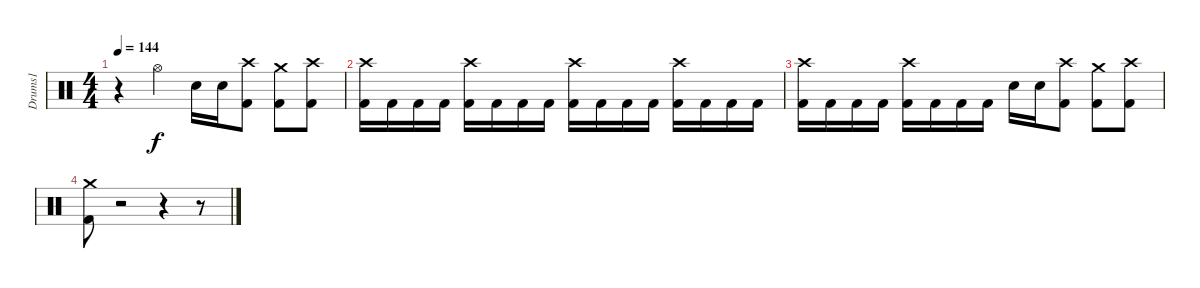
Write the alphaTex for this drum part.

\track ("Drums1" "Drums1") {instrument percussion}
\staff {score}
\articulation defaults
\ts (4 4)
\tempo 144
\clef neutral
\ks c
r.4{dy f} "Hi-Hat (open)".4 "Electric Snare (hit)".16 "Electric Snare (hit)".16 ("Crash high (hit)" "Kick (hit) 2").8 ("Crash medium (hit)" "Kick (hit) 2").8 ("Crash high (hit)" "Kick (hit) 2").8 |
("Crash high (hit)" "Kick (hit) 2").16 "Kick (hit) 2".16 "Kick (hit) 2".16 "Kick (hit) 2".16 ("Crash high (hit)" "Kick (hit) 2").16 "Kick (hit) 2".16 "Kick (hit) 2".16 "Kick (hit) 2".16 ("Crash high (hit)" "Kick (hit) 2").16 "Kick (hit) 2".16 "Kick (hit) 2".16 "Kick (hit) 2".16 ("Crash high (hit)" "Kick (hit) 2").16 "Kick (hit) 2".16 "Kick (hit) 2".16 "Kick (hit) 2".16 |
("Crash high (hit)" "Kick (hit) 2").16 "Kick (hit) 2".16 "Kick (hit) 2".16 "Kick (hit) 2".16 ("Crash high (hit)" "Kick (hit) 2").16 "Kick (hit) 2".16 "Kick (hit) 2".16 "Kick (hit) 2".16 "Electric Snare (hit)".16 "Electric Snare (hit)".16 ("Crash high (hit)" "Kick (hit) 2").8 ("Crash medium (hit)" "Kick (hit) 2").8 ("Crash high (hit)" "Kick (hit) 2").8 |
("Crash medium (hit)" "Kick (hit) 2").8 r.2 r.4 r.8
